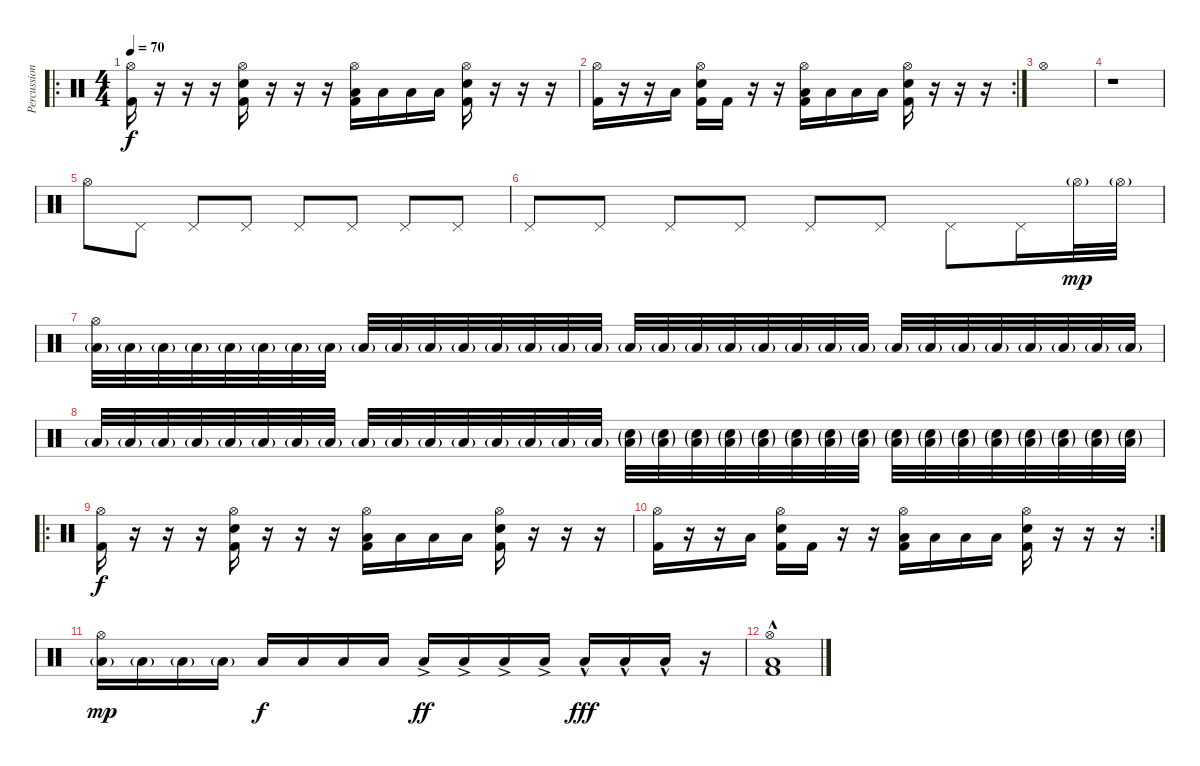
\track ("Percussion" "Percussion") {instrument percussion}
\staff {score}
\articulation defaults
\ro
\ts (4 4)
\tempo 70
\clef neutral
\ks c
("Hi-Hat (open)" "Kick (hit) 2").16{dy f} r.16 r.16 r.16 ("Hi-Hat (open)" "Snare (hit) 2" "Kick (hit) 2").16 r.16 r.16 r.16 ("Hi-Hat (open)" "Low Tom (hit)" "Kick (hit) 2").16 "Low Tom (hit)".16 "Low Tom (hit)".16 "Low Tom (hit)".16 ("Hi-Hat (open)" "Snare (hit) 2" "Kick (hit) 2").16 r.16 r.16 r.16 |
\rc 2
("Hi-Hat (open)" "Kick (hit) 2").16 r.16 r.16 "Low Tom (hit)".16 ("Hi-Hat (open)" "Snare (hit) 2" "Kick (hit) 2").16 "Kick (hit) 2".16 r.16 r.16 ("Hi-Hat (open)" "Low Tom (hit)" "Kick (hit) 2").16 "Low Tom (hit)".16 "Low Tom (hit)".16 "Low Tom (hit)".16 ("Hi-Hat (open)" "Snare (hit) 2" "Kick (hit) 2").16 r.16 r.16 r.16 |
"Hi-Hat (open)".1 |
r.1 |
"Hi-Hat (open)".8 "Pedal Hi-Hat (hit)".8 "Pedal Hi-Hat (hit)".8 "Pedal Hi-Hat (hit)".8 "Pedal Hi-Hat (hit)".8 "Pedal Hi-Hat (hit)".8 "Pedal Hi-Hat (hit)".8 "Pedal Hi-Hat (hit)".8 |
"Pedal Hi-Hat (hit)".8 "Pedal Hi-Hat (hit)".8 "Pedal Hi-Hat (hit)".8 "Pedal Hi-Hat (hit)".8 "Pedal Hi-Hat (hit)".8 "Pedal Hi-Hat (hit)".8 "Pedal Hi-Hat (hit)".8 "Pedal Hi-Hat (hit)".16 "Hi-Hat (open)"{g}.32{dy mp} "Hi-Hat (open)"{g}.32 |
("Hi-Hat (open)" "Low Tom (hit)"{g}).32 "Low Tom (hit)"{g}.32 "Low Tom (hit)"{g}.32 "Low Tom (hit)"{g}.32 "Low Tom (hit)"{g}.32 "Low Tom (hit)"{g}.32 "Low Tom (hit)"{g}.32 "Low Tom (hit)"{g}.32 "Low Tom (hit)"{g}.32 "Low Tom (hit)"{g}.32 "Low Tom (hit)"{g}.32 "Low Tom (hit)"{g}.32 "Low Tom (hit)"{g}.32 "Low Tom (hit)"{g}.32 "Low Tom (hit)"{g}.32 "Low Tom (hit)"{g}.32 "Low Tom (hit)"{g}.32 "Low Tom (hit)"{g}.32 "Low Tom (hit)"{g}.32 "Low Tom (hit)"{g}.32 "Low Tom (hit)"{g}.32 "Low Tom (hit)"{g}.32 "Low Tom (hit)"{g}.32 "Low Tom (hit)"{g}.32 "Low Tom (hit)"{g}.32 "Low Tom (hit)"{g}.32 "Low Tom (hit)"{g}.32 "Low Tom (hit)"{g}.32 "Low Tom (hit)"{g}.32 "Low Tom (hit)"{g}.32 "Low Tom (hit)"{g}.32 "Low Tom (hit)"{g}.32 |
"Low Tom (hit)"{g}.32 "Low Tom (hit)"{g}.32 "Low Tom (hit)"{g}.32 "Low Tom (hit)"{g}.32 "Low Tom (hit)"{g}.32 "Low Tom (hit)"{g}.32 "Low Tom (hit)"{g}.32 "Low Tom (hit)"{g}.32 "Low Tom (hit)"{g}.32 "Low Tom (hit)"{g}.32 "Low Tom (hit)"{g}.32 "Low Tom (hit)"{g}.32 "Low Tom (hit)"{g}.32 "Low Tom (hit)"{g}.32 "Low Tom (hit)"{g}.32 "Low Tom (hit)"{g}.32 ("Snare (hit) 2"{g} "Low Tom (hit)"{g}).32 ("Snare (hit) 2"{g} "Low Tom (hit)"{g}).32 ("Snare (hit) 2"{g} "Low Tom (hit)"{g}).32 ("Snare (hit) 2"{g} "Low Tom (hit)"{g}).32 ("Snare (hit) 2"{g} "Low Tom (hit)"{g}).32 ("Snare (hit) 2"{g} "Low Tom (hit)"{g}).32 ("Snare (hit) 2"{g} "Low Tom (hit)"{g}).32 ("Snare (hit) 2"{g} "Low Tom (hit)"{g}).32 ("Snare (hit) 2"{g} "Low Tom (hit)"{g}).32 ("Snare (hit) 2"{g} "Low Tom (hit)"{g}).32 ("Snare (hit) 2"{g} "Low Tom (hit)"{g}).32 ("Snare (hit) 2"{g} "Low Tom (hit)"{g}).32 ("Snare (hit) 2"{g} "Low Tom (hit)"{g}).32 ("Snare (hit) 2"{g} "Low Tom (hit)"{g}).32 ("Snare (hit) 2"{g} "Low Tom (hit)"{g}).32 ("Snare (hit) 2"{g} "Low Tom (hit)"{g}).32 |
\ro
("Hi-Hat (open)" "Kick (hit) 2").16{dy f} r.16 r.16 r.16 ("Hi-Hat (open)" "Snare (hit) 2" "Kick (hit) 2").16 r.16 r.16 r.16 ("Hi-Hat (open)" "Low Tom (hit)" "Kick (hit) 2").16 "Low Tom (hit)".16 "Low Tom (hit)".16 "Low Tom (hit)".16 ("Hi-Hat (open)" "Snare (hit) 2" "Kick (hit) 2").16 r.16 r.16 r.16 |
\rc 2
("Hi-Hat (open)" "Kick (hit) 2").16 r.16 r.16 "Low Tom (hit)".16 ("Hi-Hat (open)" "Snare (hit) 2" "Kick (hit) 2").16 "Kick (hit) 2".16 r.16 r.16 ("Hi-Hat (open)" "Low Tom (hit)" "Kick (hit) 2").16 "Low Tom (hit)".16 "Low Tom (hit)".16 "Low Tom (hit)".16 ("Hi-Hat (open)" "Snare (hit) 2" "Kick (hit) 2").16 r.16 r.16 r.16 |
("Hi-Hat (open)" "Low Tom (hit)"{g}).16{dy mp} "Low Tom (hit)"{g}.16 "Low Tom (hit)"{g}.16 "Low Tom (hit)"{g}.16 "Low Tom (hit)".16{dy f} "Low Tom (hit)".16 "Low Tom (hit)".16 "Low Tom (hit)".16 "Low Tom (hit)"{ac}.16{dy ff} "Low Tom (hit)"{ac}.16 "Low Tom (hit)"{ac}.16 "Low Tom (hit)"{ac}.16 "Low Tom (hit)"{hac}.16{dy fff} "Low Tom (hit)"{hac}.16 "Low Tom (hit)"{hac}.16 r.16 |
("Hi-Hat (open)"{hac} "Low Tom (hit)"{hac} "Kick (hit) 2"{hac}).1
